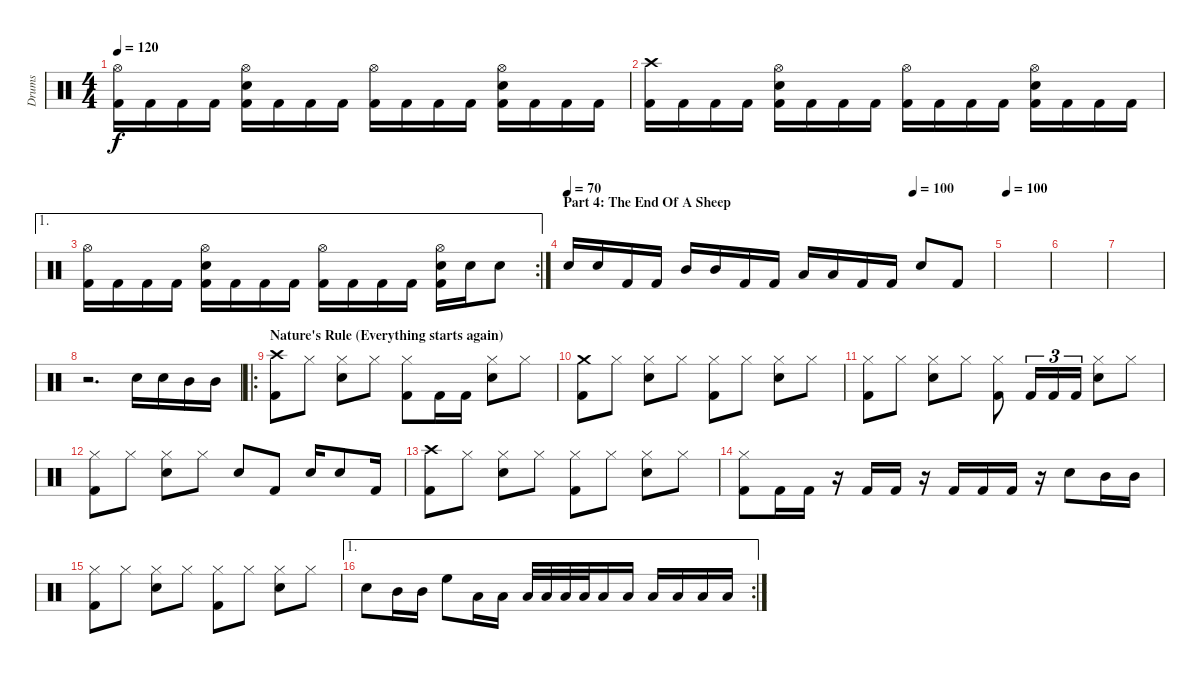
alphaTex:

\track ("Drums" "Drums") {instrument percussion}
\staff {score}
\articulation defaults
\ts (4 4)
\tempo 120
\clef neutral
\ks c
("Hi-Hat (open)" "Kick (hit) 2").16{dy f} "Kick (hit) 2".16 "Kick (hit) 2".16 "Kick (hit) 2".16 ("Snare (hit) 2" "Hi-Hat (open)" "Kick (hit) 2").16 "Kick (hit) 2".16 "Kick (hit) 2".16 "Kick (hit) 2".16 ("Hi-Hat (open)" "Kick (hit) 2").16 "Kick (hit) 2".16 "Kick (hit) 2".16 "Kick (hit) 2".16 ("Hi-Hat (open)" "Snare (hit) 2" "Kick (hit) 2").16 "Kick (hit) 2".16 "Kick (hit) 2".16 "Kick (hit) 2".16 |
("Crash high (hit)" "Kick (hit) 2").16 "Kick (hit) 2".16 "Kick (hit) 2".16 "Kick (hit) 2".16 ("Snare (hit) 2" "Hi-Hat (open)" "Kick (hit) 2").16 "Kick (hit) 2".16 "Kick (hit) 2".16 "Kick (hit) 2".16 ("Hi-Hat (open)" "Kick (hit) 2").16 "Kick (hit) 2".16 "Kick (hit) 2".16 "Kick (hit) 2".16 ("Hi-Hat (open)" "Snare (hit) 2" "Kick (hit) 2").16 "Kick (hit) 2".16 "Kick (hit) 2".16 "Kick (hit) 2".16 |
\ae 1
\rc 2
("Hi-Hat (open)" "Kick (hit) 2").16 "Kick (hit) 2".16 "Kick (hit) 2".16 "Kick (hit) 2".16 ("Snare (hit) 2" "Hi-Hat (open)" "Kick (hit) 2").16 "Kick (hit) 2".16 "Kick (hit) 2".16 "Kick (hit) 2".16 ("Hi-Hat (open)" "Kick (hit) 2").16 "Kick (hit) 2".16 "Kick (hit) 2".16 "Kick (hit) 2".16 ("Hi-Hat (open)" "Snare (hit) 2" "Kick (hit) 2").16 "Snare (hit) 2".16 "Snare (hit) 2".8 |
\section ("" "Part 4: The End Of A Sheep")
\tempo 70
\tempo (100 0.8125)
"Snare (hit) 2".16 "Snare (hit) 2".16 "Kick (hit) 2".16 "Kick (hit) 2".16 "Mid Tom (hit)".16 "Mid Tom (hit)".16 "Kick (hit) 2".16 "Kick (hit) 2".16 "Low Floor Tom (hit)".16 "Low Floor Tom (hit)".16 "Kick (hit) 2".16 "Kick (hit) 2".16 "Snare (hit) 2".8 "Kick (hit) 2".8 |
\tempo 100
|
|
|
r.2{d} "Snare (hit) 2".16 "Snare (hit) 2".16 "Mid Tom (hit)".16 "Mid Tom (hit)".16 |
\ro
\section ("" "Nature's Rule (Everything starts again)")
("Crash high (hit)" "Kick (hit) 2").8 "Hi-Hat (closed)".8 ("Hi-Hat (closed)" "Snare (hit) 2").8 "Hi-Hat (closed)".8 ("Hi-Hat (closed)" "Kick (hit) 2").8 "Kick (hit) 2".16 "Kick (hit) 2".16 ("Hi-Hat (closed)" "Snare (hit) 2").8 "Hi-Hat (closed)".8 |
("Crash medium (hit)" "Kick (hit) 2").8 "Hi-Hat (closed)".8 ("Hi-Hat (closed)" "Snare (hit) 2").8 "Hi-Hat (closed)".8 ("Hi-Hat (closed)" "Kick (hit) 2").8 "Hi-Hat (closed)".8 ("Hi-Hat (closed)" "Snare (hit) 2").8 "Hi-Hat (closed)".8 |
("Hi-Hat (closed)" "Kick (hit) 2").8 "Hi-Hat (closed)".8 ("Hi-Hat (closed)" "Snare (hit) 2").8 "Hi-Hat (closed)".8 ("Hi-Hat (closed)" "Kick (hit) 2").8 "Kick (hit) 2".16{tu (3 2)} "Kick (hit) 2".16{tu (3 2)} "Kick (hit) 2".16{tu (3 2)} ("Hi-Hat (closed)" "Snare (hit) 2").8 "Hi-Hat (closed)".8 |
("Hi-Hat (closed)" "Kick (hit) 2").8 "Hi-Hat (closed)".8 ("Hi-Hat (closed)" "Snare (hit) 2").8 "Hi-Hat (closed)".8 "Snare (hit) 2".8 "Kick (hit) 2".8 "Snare (hit) 2".16 "Snare (hit) 2".8 "Kick (hit) 2".16 |
("Crash high (hit)" "Kick (hit) 2").8 "Hi-Hat (closed)".8 ("Hi-Hat (closed)" "Snare (hit) 2").8 "Hi-Hat (closed)".8 ("Hi-Hat (closed)" "Kick (hit) 2").8 "Hi-Hat (closed)".8 ("Hi-Hat (closed)" "Snare (hit) 2").8 "Hi-Hat (closed)".8 |
("Hi-Hat (closed)" "Kick (hit) 2").8 "Kick (hit) 2".16 "Kick (hit) 2".16 r.16 "Kick (hit) 2".16 "Kick (hit) 2".16 r.16 "Kick (hit) 2".16 "Kick (hit) 2".16 "Kick (hit) 2".16 r.16 "Snare (hit) 2".8 "Mid Tom (hit)".16 "Mid Tom (hit)".16 |
("Hi-Hat (closed)" "Kick (hit) 2").8 "Hi-Hat (closed)".8 ("Hi-Hat (closed)" "Snare (hit) 2").8 "Hi-Hat (closed)".8 ("Hi-Hat (closed)" "Kick (hit) 2").8 "Hi-Hat (closed)".8 ("Hi-Hat (closed)" "Snare (hit) 2").8 "Hi-Hat (closed)".8 |
\ae 1
\rc 2 "Snare (hit) 2".8 "Mid Tom (hit)".16 "Mid Tom (hit)".16 "High Floor Tom (hit)".8 "Low Tom (hit)".16 "Low Tom (hit)".16 "Low Tom (hit)".32 "Low Tom (hit)".32 "Low Tom (hit)".32 "Low Tom (hit)".32 "Low Floor Tom (hit)".16 "Low Floor Tom (hit)".16 "Low Floor Tom (hit)".16 "Low Floor Tom (hit)".16 "Low Floor Tom (hit)".16 "Low Floor Tom (hit)".16
